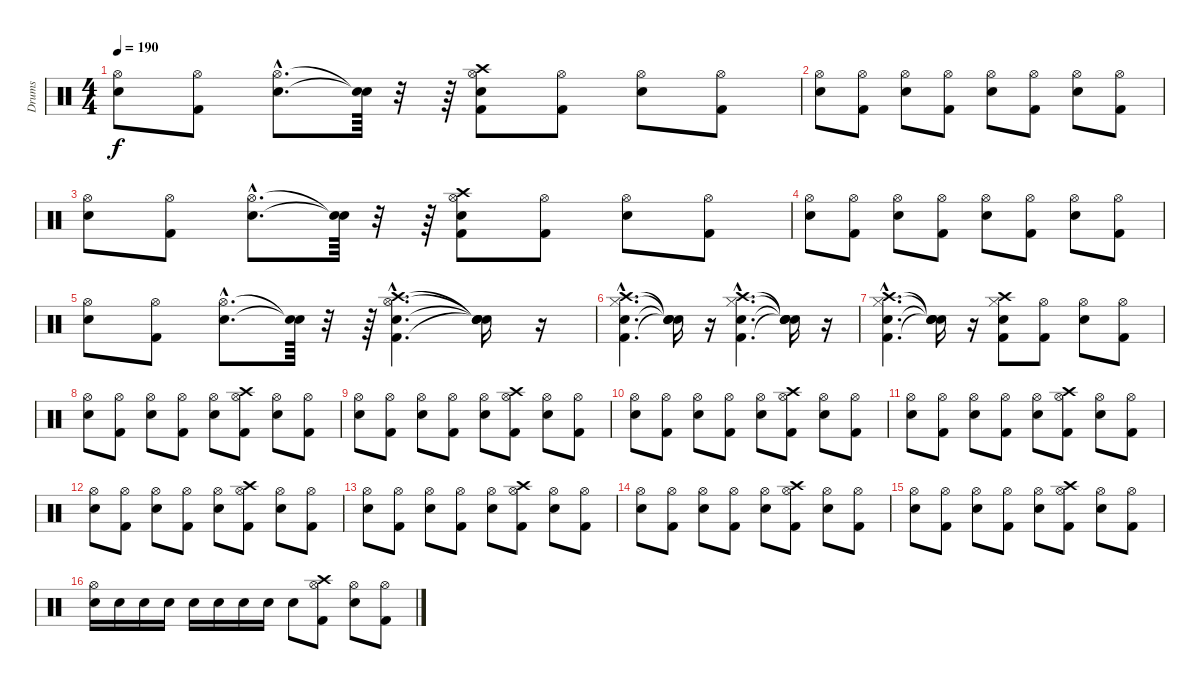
\track ("Drums" "Drums") {instrument percussion}
\staff {score}
\articulation defaults
\ts (4 4)
\tempo 190
\clef neutral
\ks c
("Snare (hit) 2" "Hi-Hat (open)").8{dy f} ("Kick (hit) 2" "Hi-Hat (open)").8 ("Snare (hit) 2"{hac} "Hi-Hat (open)"{hac}).8{d} ("Snare (hit)"{t} "Snare (hit)"{t}).64 r.32 r.64 ("Kick (hit) 2" "Snare (hit) 2" "Hi-Hat (open)" "Crash high (hit)").8 ("Kick (hit) 2" "Hi-Hat (open)").8 ("Snare (hit) 2" "Hi-Hat (open)").8 ("Kick (hit) 2" "Hi-Hat (open)").8 |
("Snare (hit) 2" "Hi-Hat (open)").8 ("Kick (hit) 2" "Hi-Hat (open)").8 ("Snare (hit) 2" "Hi-Hat (open)").8 ("Kick (hit) 2" "Hi-Hat (open)").8 ("Snare (hit) 2" "Hi-Hat (open)").8 ("Kick (hit) 2" "Hi-Hat (open)").8 ("Snare (hit) 2" "Hi-Hat (open)").8 ("Kick (hit) 2" "Hi-Hat (open)").8 |
("Snare (hit) 2" "Hi-Hat (open)").8 ("Kick (hit) 2" "Hi-Hat (open)").8 ("Snare (hit) 2"{hac} "Hi-Hat (open)"{hac}).8{d} ("Snare (hit)"{t} "Snare (hit)"{t}).64 r.32 r.64 ("Kick (hit) 2" "Snare (hit) 2" "Hi-Hat (open)" "Crash high (hit)").8 ("Kick (hit) 2" "Hi-Hat (open)").8 ("Snare (hit) 2" "Hi-Hat (open)").8 ("Kick (hit) 2" "Hi-Hat (open)").8 |
("Snare (hit) 2" "Hi-Hat (open)").8 ("Kick (hit) 2" "Hi-Hat (open)").8 ("Snare (hit) 2" "Hi-Hat (open)").8 ("Kick (hit) 2" "Hi-Hat (open)").8 ("Snare (hit) 2" "Hi-Hat (open)").8 ("Kick (hit) 2" "Hi-Hat (open)").8 ("Snare (hit) 2" "Hi-Hat (open)").8 ("Kick (hit) 2" "Hi-Hat (open)").8 |
("Snare (hit) 2" "Hi-Hat (open)").8 ("Kick (hit) 2" "Hi-Hat (open)").8 ("Snare (hit) 2"{hac} "Hi-Hat (open)"{hac}).8{d} ("Snare (hit)"{t} "Snare (hit)"{t}).64 r.32 r.64 ("Kick (hit) 2"{hac} "Snare (hit) 2"{hac} "Hi-Hat (open)"{hac} "Crash high (hit)"{hac}).4{d} ("Snare (hit)"{t} "Snare (hit)"{t} "Snare (hit)"{t} "Snare (hit)"{t}).16 r.16 |
("Kick (hit) 2"{hac} "Snare (hit) 2"{hac} "Hi-Hat (closed)"{hac} "Crash high (hit)"{hac}).4{d} ("Snare (hit)"{t} "Snare (hit)"{t} "Snare (hit)"{t} "Snare (hit)"{t}).16 r.16 ("Kick (hit) 2"{hac} "Snare (hit) 2"{hac} "Hi-Hat (closed)"{hac} "Crash high (hit)"{hac}).4{d} ("Snare (hit)"{t} "Snare (hit)"{t} "Snare (hit)"{t} "Snare (hit)"{t}).16 r.16 |
("Kick (hit) 2"{hac} "Snare (hit) 2"{hac} "Hi-Hat (closed)"{hac} "Crash high (hit)"{hac}).4{d} ("Snare (hit)"{t} "Snare (hit)"{t} "Snare (hit)"{t} "Snare (hit)"{t}).16 r.16 ("Kick (hit) 2" "Snare (hit) 2" "Hi-Hat (closed)" "Crash high (hit)").8 ("Kick (hit) 2" "Hi-Hat (open)").8 ("Snare (hit) 2" "Hi-Hat (open)").8 ("Kick (hit) 2" "Hi-Hat (open)").8 |
("Snare (hit) 2" "Hi-Hat (open)").8 ("Kick (hit) 2" "Hi-Hat (open)").8 ("Snare (hit) 2" "Hi-Hat (open)").8 ("Kick (hit) 2" "Hi-Hat (open)").8 ("Snare (hit) 2" "Hi-Hat (open)").8 ("Kick (hit) 2" "Hi-Hat (open)" "Crash high (hit)").8 ("Snare (hit) 2" "Hi-Hat (open)").8 ("Kick (hit) 2" "Hi-Hat (open)").8 |
("Snare (hit) 2" "Hi-Hat (open)").8 ("Kick (hit) 2" "Hi-Hat (open)").8 ("Snare (hit) 2" "Hi-Hat (open)").8 ("Kick (hit) 2" "Hi-Hat (open)").8 ("Snare (hit) 2" "Hi-Hat (open)").8 ("Kick (hit) 2" "Hi-Hat (open)" "Crash high (hit)").8 ("Snare (hit) 2" "Hi-Hat (open)").8 ("Kick (hit) 2" "Hi-Hat (open)").8 |
("Snare (hit) 2" "Hi-Hat (open)").8 ("Kick (hit) 2" "Hi-Hat (open)").8 ("Snare (hit) 2" "Hi-Hat (open)").8 ("Kick (hit) 2" "Hi-Hat (open)").8 ("Snare (hit) 2" "Hi-Hat (open)").8 ("Kick (hit) 2" "Hi-Hat (open)" "Crash high (hit)").8 ("Snare (hit) 2" "Hi-Hat (open)").8 ("Kick (hit) 2" "Hi-Hat (open)").8 |
("Snare (hit) 2" "Hi-Hat (open)").8 ("Kick (hit) 2" "Hi-Hat (open)").8 ("Snare (hit) 2" "Hi-Hat (open)").8 ("Kick (hit) 2" "Hi-Hat (open)").8 ("Snare (hit) 2" "Hi-Hat (open)").8 ("Kick (hit) 2" "Hi-Hat (open)" "Crash high (hit)").8 ("Snare (hit) 2" "Hi-Hat (open)").8 ("Kick (hit) 2" "Hi-Hat (open)").8 |
("Snare (hit) 2" "Hi-Hat (open)").8 ("Kick (hit) 2" "Hi-Hat (open)").8 ("Snare (hit) 2" "Hi-Hat (open)").8 ("Kick (hit) 2" "Hi-Hat (open)").8 ("Snare (hit) 2" "Hi-Hat (open)").8 ("Kick (hit) 2" "Hi-Hat (open)" "Crash high (hit)").8 ("Snare (hit) 2" "Hi-Hat (open)").8 ("Kick (hit) 2" "Hi-Hat (open)").8 |
("Snare (hit) 2" "Hi-Hat (open)").8 ("Kick (hit) 2" "Hi-Hat (open)").8 ("Snare (hit) 2" "Hi-Hat (open)").8 ("Kick (hit) 2" "Hi-Hat (open)").8 ("Snare (hit) 2" "Hi-Hat (open)").8 ("Kick (hit) 2" "Hi-Hat (open)" "Crash high (hit)").8 ("Snare (hit) 2" "Hi-Hat (open)").8 ("Kick (hit) 2" "Hi-Hat (open)").8 |
("Snare (hit) 2" "Hi-Hat (open)").8 ("Kick (hit) 2" "Hi-Hat (open)").8 ("Snare (hit) 2" "Hi-Hat (open)").8 ("Kick (hit) 2" "Hi-Hat (open)").8 ("Snare (hit) 2" "Hi-Hat (open)").8 ("Kick (hit) 2" "Hi-Hat (open)" "Crash high (hit)").8 ("Snare (hit) 2" "Hi-Hat (open)").8 ("Kick (hit) 2" "Hi-Hat (open)").8 |
("Snare (hit) 2" "Hi-Hat (open)").8 ("Kick (hit) 2" "Hi-Hat (open)").8 ("Snare (hit) 2" "Hi-Hat (open)").8 ("Kick (hit) 2" "Hi-Hat (open)").8 ("Snare (hit) 2" "Hi-Hat (open)").8 ("Kick (hit) 2" "Hi-Hat (open)" "Crash high (hit)").8 ("Snare (hit) 2" "Hi-Hat (open)").8 ("Kick (hit) 2" "Hi-Hat (open)").8 |
("Snare (hit) 2" "Hi-Hat (open)").16 "Snare (hit) 2".16 "Snare (hit) 2".16 "Snare (hit) 2".16 "Snare (hit) 2".16 "Snare (hit) 2".16 "Snare (hit) 2".16 "Snare (hit) 2".16 "Snare (hit) 2".8 ("Kick (hit) 2" "Hi-Hat (open)" "Crash high (hit)").8 ("Snare (hit) 2" "Hi-Hat (open)").8 ("Kick (hit) 2" "Hi-Hat (open)").8
